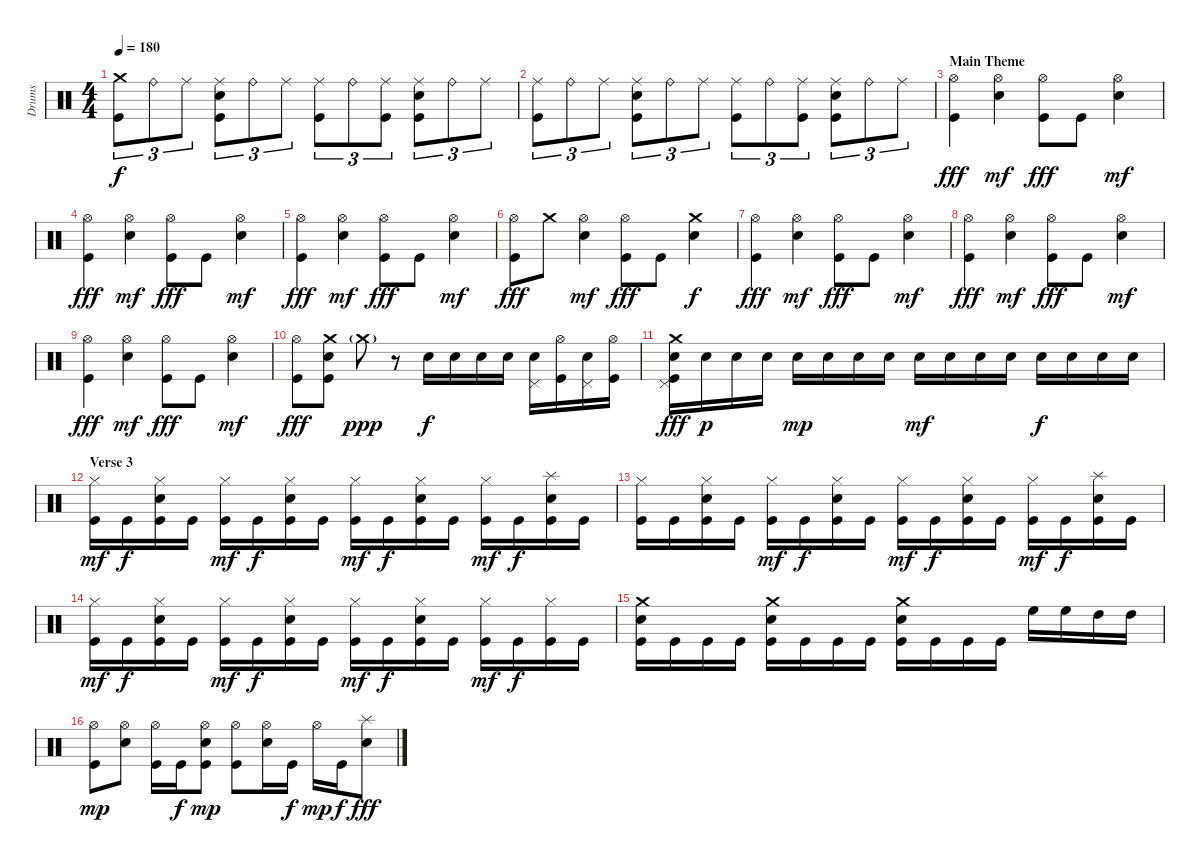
\track ("Drums" "Drums") {instrument percussion}
\staff {score}
\articulation defaults
\ts (4 4)
\tempo 180
\clef neutral
\ks c
("Crash medium (hit)" "Kick (hit)").8{tu (3 2) dy f} "Ride (bell)".8{tu (3 2)} "Ride (middle)".8{tu (3 2)} ("Ride (middle)" "Electric Snare (hit)" "Kick (hit)").8{tu (3 2)} "Ride (bell)".8{tu (3 2)} "Ride (middle)".8{tu (3 2)} ("Ride (middle)" "Kick (hit)").8{tu (3 2)} "Ride (bell)".8{tu (3 2)} ("Ride (middle)" "Kick (hit)").8{tu (3 2)} ("Ride (middle)" "Electric Snare (hit)" "Kick (hit)").8{tu (3 2)} "Ride (bell)".8{tu (3 2)} "Ride (middle)".8{tu (3 2)} |
("Ride (middle)" "Kick (hit)").8{tu (3 2)} "Ride (bell)".8{tu (3 2)} "Ride (middle)".8{tu (3 2)} ("Ride (middle)" "Electric Snare (hit)" "Kick (hit)").8{tu (3 2)} "Ride (bell)".8{tu (3 2)} "Ride (middle)".8{tu (3 2)} ("Ride (middle)" "Kick (hit)").8{tu (3 2)} "Ride (bell)".8{tu (3 2)} ("Ride (middle)" "Kick (hit)").8{tu (3 2)} ("Ride (middle)" "Electric Snare (hit)" "Kick (hit)").8{tu (3 2)} "Ride (bell)".8{tu (3 2)} "Ride (middle)".8{tu (3 2)} |
\section ("" "Main Theme")
("Hi-Hat (open)" "Kick (hit)").4{dy fff} ("Hi-Hat (open)" "Electric Snare (hit)").4{dy mf} ("Hi-Hat (open)" "Kick (hit)").8{dy fff} "Kick (hit)".8 ("Hi-Hat (open)" "Electric Snare (hit)").4{dy mf} |
("Hi-Hat (open)" "Kick (hit)").4{dy fff} ("Hi-Hat (open)" "Electric Snare (hit)").4{dy mf} ("Hi-Hat (open)" "Kick (hit)").8{dy fff} "Kick (hit)".8 ("Hi-Hat (open)" "Electric Snare (hit)").4{dy mf} |
("Hi-Hat (open)" "Kick (hit)").4{dy fff} ("Hi-Hat (open)" "Electric Snare (hit)").4{dy mf} ("Hi-Hat (open)" "Kick (hit)").8{dy fff} "Kick (hit)".8 ("Hi-Hat (open)" "Electric Snare (hit)").4{dy mf} |
("Hi-Hat (open)" "Kick (hit)").8{dy fff} "Crash medium (hit)".8 ("Hi-Hat (open)" "Electric Snare (hit)").4{dy mf} ("Hi-Hat (open)" "Kick (hit)").8{dy fff} "Kick (hit)".8 ("Crash medium (hit)" "Electric Snare (hit)").4{dy f} |
("Hi-Hat (open)" "Kick (hit)").4{dy fff} ("Hi-Hat (open)" "Electric Snare (hit)").4{dy mf} ("Hi-Hat (open)" "Kick (hit)").8{dy fff} "Kick (hit)".8 ("Hi-Hat (open)" "Electric Snare (hit)").4{dy mf} |
("Hi-Hat (open)" "Kick (hit)").4{dy fff} ("Hi-Hat (open)" "Electric Snare (hit)").4{dy mf} ("Hi-Hat (open)" "Kick (hit)").8{dy fff} "Kick (hit)".8 ("Hi-Hat (open)" "Electric Snare (hit)").4{dy mf} |
("Hi-Hat (open)" "Kick (hit)").4{dy fff} ("Hi-Hat (open)" "Electric Snare (hit)").4{dy mf} ("Hi-Hat (open)" "Kick (hit)").8{dy fff} "Kick (hit)".8 ("Hi-Hat (open)" "Electric Snare (hit)").4{dy mf} |
("Hi-Hat (open)" "Kick (hit)").8{dy fff} ("Crash medium (hit)" "Electric Snare (hit)" "Kick (hit)").8 "Crash medium (hit)"{g}.8{dy ppp} r.8 "Electric Snare (hit)".16{dy f} "Electric Snare (hit)".16 "Electric Snare (hit)".16 "Electric Snare (hit)".16 ("Pedal Hi-Hat (hit)" "Electric Snare (hit)").16 ("Hi-Hat (open)" "Kick (hit)").16 ("Pedal Hi-Hat (hit)" "Electric Snare (hit)").16 ("Hi-Hat (open)" "Kick (hit)").16 |
("Crash medium (hit)" "Pedal Hi-Hat (hit)" "Electric Snare (hit)" "Kick (hit)").16{dy fff} "Electric Snare (hit)".16{dy p} "Electric Snare (hit)".16 "Electric Snare (hit)".16 "Electric Snare (hit)".16{dy mp} "Electric Snare (hit)".16 "Electric Snare (hit)".16 "Electric Snare (hit)".16 "Electric Snare (hit)".16{dy mf} "Electric Snare (hit)".16 "Electric Snare (hit)".16 "Electric Snare (hit)".16 "Electric Snare (hit)".16{dy f} "Electric Snare (hit)".16 "Electric Snare (hit)".16 "Electric Snare (hit)".16 |
\section ("" "Verse 3")
("Hi-Hat (closed)" "Kick (hit)").16{dy mf} "Kick (hit)".16{dy f} ("Hi-Hat (closed)" "Electric Snare (hit)" "Kick (hit)").16 "Kick (hit)".16 ("Hi-Hat (closed)" "Kick (hit)").16{dy mf} "Kick (hit)".16{dy f} ("Hi-Hat (closed)" "Electric Snare (hit)" "Kick (hit)").16 "Kick (hit)".16 ("Hi-Hat (closed)" "Kick (hit)").16{dy mf} "Kick (hit)".16{dy f} ("Hi-Hat (closed)" "Electric Snare (hit)" "Kick (hit)").16 "Kick (hit)".16 ("Hi-Hat (closed)" "Kick (hit)").16{dy mf} "Kick (hit)".16{dy f} ("Splash (hit)" "Electric Snare (hit)" "Kick (hit)").16 "Kick (hit)".16 |
("Hi-Hat (closed)" "Kick (hit)").16 "Kick (hit)".16 ("Hi-Hat (closed)" "Electric Snare (hit)" "Kick (hit)").16 "Kick (hit)".16 ("Hi-Hat (closed)" "Kick (hit)").16{dy mf} "Kick (hit)".16{dy f} ("Hi-Hat (closed)" "Electric Snare (hit)" "Kick (hit)").16 "Kick (hit)".16 ("Hi-Hat (closed)" "Kick (hit)").16{dy mf} "Kick (hit)".16{dy f} ("Hi-Hat (closed)" "Electric Snare (hit)" "Kick (hit)").16 "Kick (hit)".16 ("Hi-Hat (closed)" "Kick (hit)").16{dy mf} "Kick (hit)".16{dy f} ("Splash (hit)" "Electric Snare (hit)" "Kick (hit)").16 "Kick (hit)".16 |
("Hi-Hat (closed)" "Kick (hit)").16{dy mf} "Kick (hit)".16{dy f} ("Hi-Hat (closed)" "Electric Snare (hit)" "Kick (hit)").16 "Kick (hit)".16 ("Hi-Hat (closed)" "Kick (hit)").16{dy mf} "Kick (hit)".16{dy f} ("Hi-Hat (closed)" "Electric Snare (hit)" "Kick (hit)").16 "Kick (hit)".16 ("Hi-Hat (closed)" "Kick (hit)").16{dy mf} "Kick (hit)".16{dy f} ("Hi-Hat (closed)" "Electric Snare (hit)" "Kick (hit)").16 "Kick (hit)".16 ("Hi-Hat (closed)" "Kick (hit)").16{dy mf} "Kick (hit)".16{dy f} ("Hi-Hat (closed)" "Kick (hit)").16 "Kick (hit)".16 |
("Crash medium (hit)" "Electric Snare (hit)" "Kick (hit)").16 "Kick (hit)".16 "Kick (hit)".16 "Kick (hit)".16 ("Crash medium (hit)" "Electric Snare (hit)" "Kick (hit)").16 "Kick (hit)".16 "Kick (hit)".16 "Kick (hit)".16 ("Crash medium (hit)" "Electric Snare (hit)" "Kick (hit)").16 "Kick (hit)".16 "Kick (hit)".16 "Kick (hit)".16 "High Floor Tom (hit)".16 "High Floor Tom (hit)".16 "High Tom (hit)".16 "High Tom (hit)".16 |
("Hi-Hat (open)" "Kick (hit)").8{dy mp} ("Hi-Hat (open)" "Electric Snare (hit)").8 ("Hi-Hat (open)" "Kick (hit)").16 "Kick (hit)".16{dy f} ("Hi-Hat (open)" "Electric Snare (hit)" "Kick (hit)").8{dy mp} ("Hi-Hat (open)" "Kick (hit)").8 ("Hi-Hat (open)" "Electric Snare (hit)").16 "Kick (hit)".16{dy f} "Hi-Hat (open)".16{dy mp} "Kick (hit)".16{dy f} ("Splash (hit)" "Electric Snare (hit)").8{dy fff}
